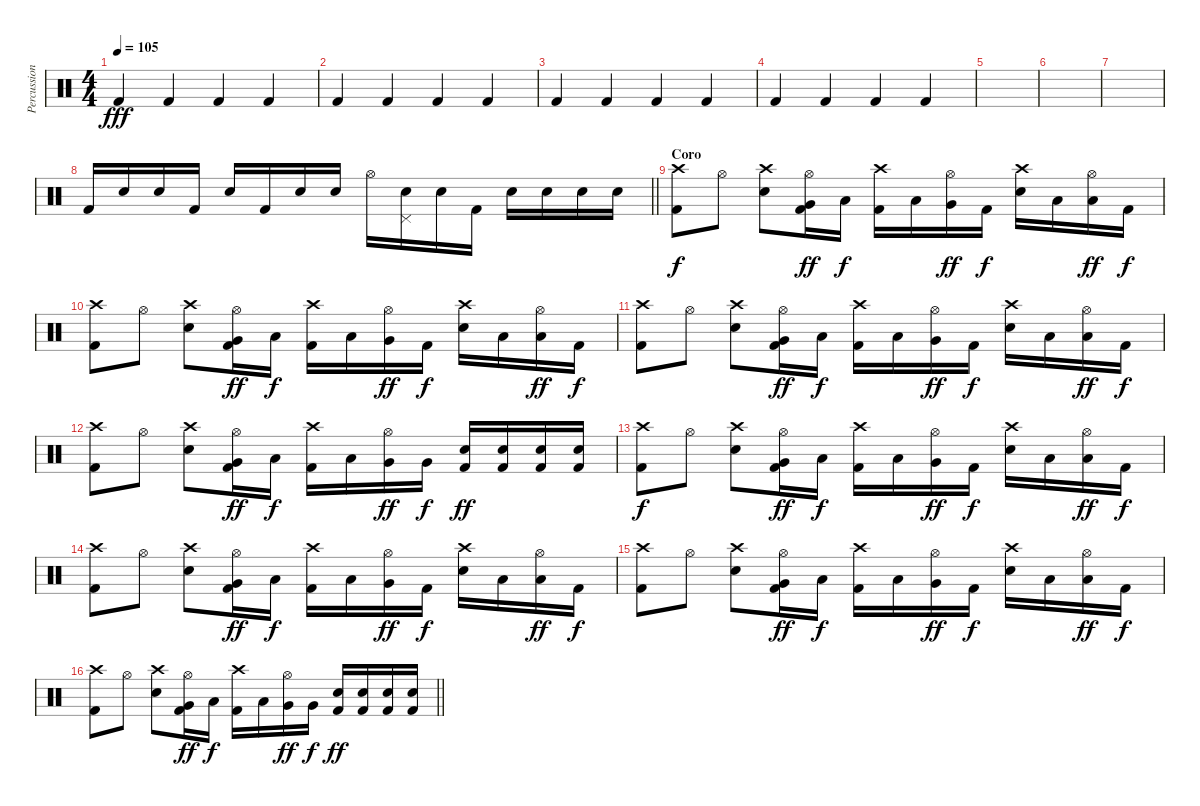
\track ("Percussion" "Percussion") {instrument percussion}
\staff {score}
\articulation defaults
\ts (4 4)
\tempo 105
\clef neutral
\ks c "Kick (hit) 2".4{dy fff} "Kick (hit) 2".4 "Kick (hit) 2".4 "Kick (hit) 2".4
|
"Kick (hit) 2".4 "Kick (hit) 2".4 "Kick (hit) 2".4 "Kick (hit) 2".4 |
"Kick (hit) 2".4 "Kick (hit) 2".4 "Kick (hit) 2".4 "Kick (hit) 2".4 |
"Kick (hit) 2".4 "Kick (hit) 2".4 "Kick (hit) 2".4 "Kick (hit) 2".4 |
|
|
|
\barLineRight lightlight "Kick (hit) 2".16 "Electric Snare (hit)".16 "Electric Snare (hit)".16 "Kick (hit) 2".16 "Electric Snare (hit)".16 "Kick (hit) 2".16 "Electric Snare (hit)".16 "Electric Snare (hit)".16 "Hi-Hat (open)".16
("Pedal Hi-Hat (hit)" "Electric Snare (hit)").16 "Electric Snare (hit)".16 "Kick (hit) 2".16 "Electric Snare (hit)".16 "Electric Snare (hit)".16 "Electric Snare (hit)".16 "Electric Snare (hit)".16 |
\section ("" "Coro")
("Crash high (hit)" "Kick (hit) 2").8{dy f} "Hi-Hat (open)".8 ("Crash high (hit)" "Electric Snare (hit)").8 ("Very Low Tom (hit)" "Hi-Hat (open)" "Kick (hit) 2").16{dy ff} "Low Tom (hit)".16{dy f} ("Crash high (hit)" "Kick (hit) 2").16 "Low Tom (hit)".16 ("Very Low Tom (hit)" "Hi-Hat (open)").16{dy ff} "Kick (hit) 2".16{dy f} ("Crash high (hit)" "Electric Snare (hit)").16 "Low Tom (hit)".16 ("Low Tom (hit)" "Hi-Hat (open)").16{dy ff} "Kick (hit) 2".16{dy f} |
("Crash high (hit)" "Kick (hit) 2").8 "Hi-Hat (open)".8 ("Crash high (hit)" "Electric Snare (hit)").8 ("Very Low Tom (hit)" "Hi-Hat (open)" "Kick (hit) 2").16{dy ff} "Low Tom (hit)".16{dy f} ("Crash high (hit)" "Kick (hit) 2").16 "Low Tom (hit)".16 ("Very Low Tom (hit)" "Hi-Hat (open)").16{dy ff} "Kick (hit) 2".16{dy f} ("Crash high (hit)" "Electric Snare (hit)").16 "Low Tom (hit)".16 ("Low Tom (hit)" "Hi-Hat (open)").16{dy ff} "Kick (hit) 2".16{dy f} |
("Crash high (hit)" "Kick (hit) 2").8 "Hi-Hat (open)".8 ("Crash high (hit)" "Electric Snare (hit)").8 ("Very Low Tom (hit)" "Hi-Hat (open)" "Kick (hit) 2").16{dy ff} "Low Tom (hit)".16{dy f} ("Crash high (hit)" "Kick (hit) 2").16 "Low Tom (hit)".16 ("Very Low Tom (hit)" "Hi-Hat (open)").16{dy ff} "Kick (hit) 2".16{dy f} ("Crash high (hit)" "Electric Snare (hit)").16 "Low Tom (hit)".16 ("Low Tom (hit)" "Hi-Hat (open)").16{dy ff} "Kick (hit) 2".16{dy f} |
("Crash high (hit)" "Kick (hit) 2").8 "Hi-Hat (open)".8 ("Crash high (hit)" "Electric Snare (hit)").8 ("Very Low Tom (hit)" "Hi-Hat (open)" "Kick (hit) 2").16{dy ff} "Low Tom (hit)".16{dy f} ("Crash high (hit)" "Kick (hit) 2").16 "Low Tom (hit)".16 ("Very Low Tom (hit)" "Hi-Hat (open)").16{dy ff} "Very Low Tom (hit)".16{dy f} ("Electric Snare (hit)" "Kick (hit) 2").16{dy ff} ("Electric Snare (hit)" "Kick (hit) 2").16 ("Electric Snare (hit)" "Kick (hit) 2").16 ("Electric Snare (hit)" "Kick (hit) 2").16 |
("Crash high (hit)" "Kick (hit) 2").8{dy f} "Hi-Hat (open)".8 ("Crash high (hit)" "Electric Snare (hit)").8 ("Very Low Tom (hit)" "Hi-Hat (open)" "Kick (hit) 2").16{dy ff} "Low Tom (hit)".16{dy f} ("Crash high (hit)" "Kick (hit) 2").16 "Low Tom (hit)".16 ("Very Low Tom (hit)" "Hi-Hat (open)").16{dy ff} "Kick (hit) 2".16{dy f} ("Crash high (hit)" "Electric Snare (hit)").16 "Low Tom (hit)".16 ("Low Tom (hit)" "Hi-Hat (open)").16{dy ff} "Kick (hit) 2".16{dy f} |
("Crash high (hit)" "Kick (hit) 2").8 "Hi-Hat (open)".8 ("Crash high (hit)" "Electric Snare (hit)").8 ("Very Low Tom (hit)" "Hi-Hat (open)" "Kick (hit) 2").16{dy ff} "Low Tom (hit)".16{dy f} ("Crash high (hit)" "Kick (hit) 2").16 "Low Tom (hit)".16 ("Very Low Tom (hit)" "Hi-Hat (open)").16{dy ff} "Kick (hit) 2".16{dy f} ("Crash high (hit)" "Electric Snare (hit)").16 "Low Tom (hit)".16 ("Low Tom (hit)" "Hi-Hat (open)").16{dy ff} "Kick (hit) 2".16{dy f} |
("Crash high (hit)" "Kick (hit) 2").8 "Hi-Hat (open)".8 ("Crash high (hit)" "Electric Snare (hit)").8 ("Very Low Tom (hit)" "Hi-Hat (open)" "Kick (hit) 2").16{dy ff} "Low Tom (hit)".16{dy f} ("Crash high (hit)" "Kick (hit) 2").16 "Low Tom (hit)".16 ("Very Low Tom (hit)" "Hi-Hat (open)").16{dy ff} "Kick (hit) 2".16{dy f} ("Crash high (hit)" "Electric Snare (hit)").16 "Low Tom (hit)".16 ("Low Tom (hit)" "Hi-Hat (open)").16{dy ff} "Kick (hit) 2".16{dy f} |
\barLineRight lightlight
("Crash high (hit)" "Kick (hit) 2").8 "Hi-Hat (open)".8 ("Crash high (hit)" "Electric Snare (hit)").8 ("Very Low Tom (hit)" "Hi-Hat (open)" "Kick (hit) 2").16{dy ff} "Low Tom (hit)".16{dy f} ("Crash high (hit)" "Kick (hit) 2").16 "Low Tom (hit)".16 ("Very Low Tom (hit)" "Hi-Hat (open)").16{dy ff} "Very Low Tom (hit)".16{dy f} ("Electric Snare (hit)" "Kick (hit) 2").16{dy ff} ("Electric Snare (hit)" "Kick (hit) 2").16 ("Electric Snare (hit)" "Kick (hit) 2").16 ("Electric Snare (hit)" "Kick (hit) 2").16
